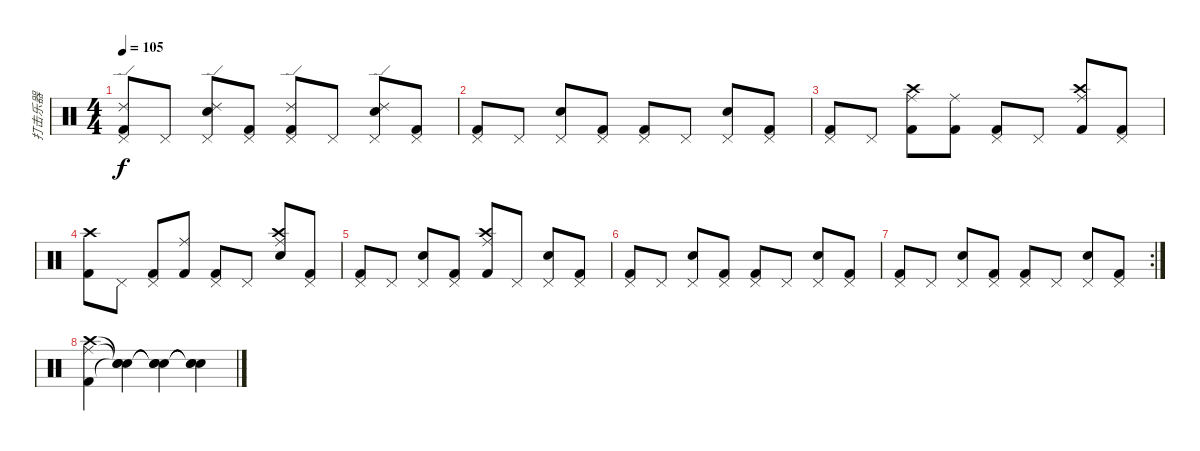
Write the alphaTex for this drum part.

\track ("打击乐器" "打击乐器") {instrument percussion}
\staff {score}
\articulation defaults
\ts (4 4)
\tempo 105
\clef neutral
\ks c
("Ride (edge) 2" "Pedal Hi-Hat (hit)" "Kick (hit) 2").8{dy f} "Pedal Hi-Hat (hit)".8 ("Ride (edge) 2" "Pedal Hi-Hat (hit)" "Snare (hit) 2").8 ("Pedal Hi-Hat (hit)" "Kick (hit) 2").8 ("Ride (edge) 2" "Pedal Hi-Hat (hit)" "Kick (hit) 2").8 "Pedal Hi-Hat (hit)".8 ("Ride (edge) 2" "Pedal Hi-Hat (hit)" "Snare (hit) 2").8 ("Pedal Hi-Hat (hit)" "Kick (hit) 2").8 |
("Pedal Hi-Hat (hit)" "Kick (hit) 2").8 "Pedal Hi-Hat (hit)".8 ("Pedal Hi-Hat (hit)" "Snare (hit) 2").8 ("Pedal Hi-Hat (hit)" "Kick (hit) 2").8 ("Pedal Hi-Hat (hit)" "Kick (hit) 2").8 "Pedal Hi-Hat (hit)".8 ("Pedal Hi-Hat (hit)" "Snare (hit) 2").8 ("Pedal Hi-Hat (hit)" "Kick (hit) 2").8 |
("Pedal Hi-Hat (hit)" "Kick (hit) 2").8 "Pedal Hi-Hat (hit)".8 ("Crash high (hit)" "Kick (hit) 2" "Ride (middle)").8 ("Ride (middle)" "Kick (hit) 2").8 ("Pedal Hi-Hat (hit)" "Kick (hit) 2").8 "Pedal Hi-Hat (hit)".8 ("Crash high (hit)" "Kick (hit) 2" "Ride (middle)").8 ("Pedal Hi-Hat (hit)" "Kick (hit) 2").8 |
("Crash high (hit)" "Kick (hit) 2").8 "Pedal Hi-Hat (hit)".8 ("Pedal Hi-Hat (hit)" "Kick (hit) 2").8 ("Ride (middle)" "Kick (hit) 2").8 ("Pedal Hi-Hat (hit)" "Kick (hit) 2").8 "Pedal Hi-Hat (hit)".8 ("Crash high (hit)" "Snare (hit)" "Ride (middle)").8 ("Pedal Hi-Hat (hit)" "Kick (hit) 2").8 |
("Pedal Hi-Hat (hit)" "Kick (hit) 2").8 "Pedal Hi-Hat (hit)".8 ("Pedal Hi-Hat (hit)" "Snare (hit) 2").8 ("Pedal Hi-Hat (hit)" "Kick (hit) 2").8 ("Crash high (hit)" "Kick (hit) 2" "Ride (middle)").8 "Pedal Hi-Hat (hit)".8 ("Pedal Hi-Hat (hit)" "Snare (hit) 2").8 ("Pedal Hi-Hat (hit)" "Kick (hit) 2").8 |
("Pedal Hi-Hat (hit)" "Kick (hit) 2").8 "Pedal Hi-Hat (hit)".8 ("Pedal Hi-Hat (hit)" "Snare (hit) 2").8 ("Pedal Hi-Hat (hit)" "Kick (hit) 2").8 ("Pedal Hi-Hat (hit)" "Kick (hit) 2").8 "Pedal Hi-Hat (hit)".8 ("Pedal Hi-Hat (hit)" "Snare (hit) 2").8 ("Pedal Hi-Hat (hit)" "Kick (hit) 2").8 |
\rc 2
("Pedal Hi-Hat (hit)" "Kick (hit) 2").8 "Pedal Hi-Hat (hit)".8 ("Pedal Hi-Hat (hit)" "Snare (hit) 2").8 ("Pedal Hi-Hat (hit)" "Kick (hit) 2").8 ("Pedal Hi-Hat (hit)" "Kick (hit) 2").8 "Pedal Hi-Hat (hit)".8 ("Pedal Hi-Hat (hit)" "Snare (hit) 2").8 ("Pedal Hi-Hat (hit)" "Kick (hit) 2").8 |
("Crash high (hit)" "Kick (hit) 2" "Ride (middle)").4 ("Snare (hit)"{t} "Snare (hit)"{t} "Snare (hit)"{t}).4 ("Snare (hit)"{t} "Snare (hit)"{t} "Snare (hit)"{t}).4 ("Snare (hit)"{t} "Snare (hit)"{t} "Snare (hit)"{t}).4
